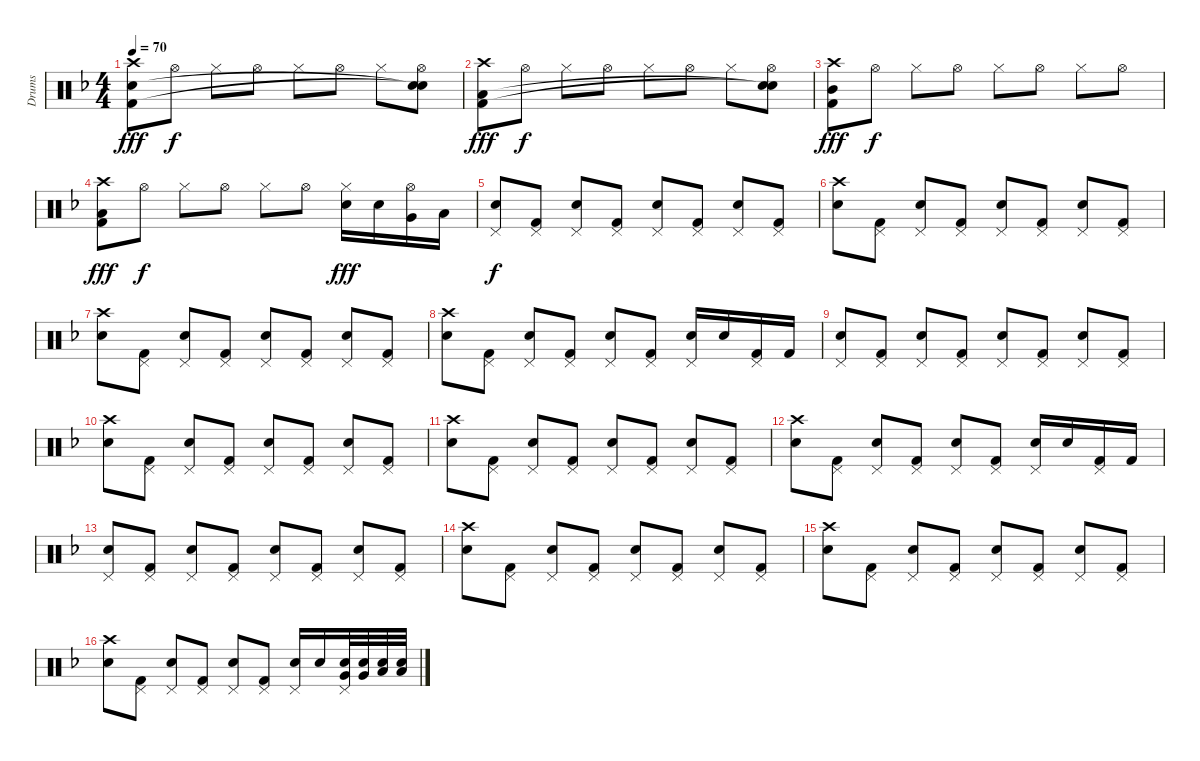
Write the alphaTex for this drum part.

\track ("Drums" "Drums") {instrument percussion}
\staff {score}
\articulation defaults
\ts (4 4)
\tempo 70
\clef neutral
\ks dminor
("Crash high (hit)" "Snare (hit) 2" "Kick (hit) 2").8{dy fff} "Hi-Hat (open)".8{dy f} "Hi-Hat (closed)".8 "Hi-Hat (open)".8 "Hi-Hat (closed)".8 "Hi-Hat (open)".8 "Hi-Hat (closed)".8 ("Hi-Hat (open)" "Snare (hit)"{t} "Snare (hit)"{t}).8 |
("Crash high (hit)" "Low Floor Tom (hit)" "Kick (hit) 2").8{dy fff} "Hi-Hat (open)".8{dy f} "Hi-Hat (closed)".8 "Hi-Hat (open)".8 "Hi-Hat (closed)".8 "Hi-Hat (open)".8 "Hi-Hat (closed)".8 ("Hi-Hat (open)" "Snare (hit)"{t} "Snare (hit)"{t}).8 |
("Crash high (hit)" "Mid Tom (hit)" "Kick (hit) 2").8{dy fff} "Hi-Hat (open)".8{dy f} "Hi-Hat (closed)".8 "Hi-Hat (open)".8 "Hi-Hat (closed)".8 "Hi-Hat (open)".8 "Hi-Hat (closed)".8 "Hi-Hat (open)".8 |
("Crash high (hit)" "Low Tom (hit)" "Kick (hit) 2").8{dy fff} "Hi-Hat (open)".8{dy f} "Hi-Hat (closed)".8 "Hi-Hat (open)".8 "Hi-Hat (closed)".8 "Hi-Hat (open)".8 ("Hi-Hat (closed)" "Snare (hit) 2").16{dy fff} "Snare (hit) 2".16 ("Hi-Hat (open)" "Very Low Tom (hit)").16 "Low Floor Tom (hit)".16 |
("Pedal Hi-Hat (hit)" "Snare (hit) 2").8{dy f} ("Pedal Hi-Hat (hit)" "Kick (hit) 2").8 ("Pedal Hi-Hat (hit)" "Snare (hit) 2").8 ("Pedal Hi-Hat (hit)" "Kick (hit) 2").8 ("Pedal Hi-Hat (hit)" "Snare (hit) 2").8 ("Pedal Hi-Hat (hit)" "Kick (hit) 2").8 ("Pedal Hi-Hat (hit)" "Snare (hit) 2").8 ("Pedal Hi-Hat (hit)" "Kick (hit) 2").8 |
("Crash high (hit)" "Snare (hit) 2").8 ("Pedal Hi-Hat (hit)" "Kick (hit) 2").8 ("Pedal Hi-Hat (hit)" "Snare (hit) 2").8 ("Pedal Hi-Hat (hit)" "Kick (hit) 2").8 ("Pedal Hi-Hat (hit)" "Snare (hit) 2").8 ("Pedal Hi-Hat (hit)" "Kick (hit) 2").8 ("Pedal Hi-Hat (hit)" "Snare (hit) 2").8 ("Pedal Hi-Hat (hit)" "Kick (hit) 2").8 |
("Crash high (hit)" "Snare (hit) 2").8 ("Pedal Hi-Hat (hit)" "Kick (hit) 2").8 ("Pedal Hi-Hat (hit)" "Snare (hit) 2").8 ("Pedal Hi-Hat (hit)" "Kick (hit) 2").8 ("Pedal Hi-Hat (hit)" "Snare (hit) 2").8 ("Pedal Hi-Hat (hit)" "Kick (hit) 2").8 ("Pedal Hi-Hat (hit)" "Snare (hit) 2").8 ("Pedal Hi-Hat (hit)" "Kick (hit) 2").8 |
("Crash high (hit)" "Snare (hit) 2").8 ("Pedal Hi-Hat (hit)" "Kick (hit) 2").8 ("Pedal Hi-Hat (hit)" "Snare (hit) 2").8 ("Pedal Hi-Hat (hit)" "Kick (hit) 2").8 ("Pedal Hi-Hat (hit)" "Snare (hit) 2").8 ("Pedal Hi-Hat (hit)" "Kick (hit) 2").8 ("Pedal Hi-Hat (hit)" "Snare (hit) 2").16 "Snare (hit) 2".16 ("Pedal Hi-Hat (hit)" "Kick (hit) 2").16 "Kick (hit) 2".16 |
("Pedal Hi-Hat (hit)" "Snare (hit) 2").8 ("Pedal Hi-Hat (hit)" "Kick (hit) 2").8 ("Pedal Hi-Hat (hit)" "Snare (hit) 2").8 ("Pedal Hi-Hat (hit)" "Kick (hit) 2").8 ("Pedal Hi-Hat (hit)" "Snare (hit) 2").8 ("Pedal Hi-Hat (hit)" "Kick (hit) 2").8 ("Pedal Hi-Hat (hit)" "Snare (hit) 2").8 ("Pedal Hi-Hat (hit)" "Kick (hit) 2").8 |
("Crash high (hit)" "Snare (hit) 2").8 ("Pedal Hi-Hat (hit)" "Kick (hit) 2").8 ("Pedal Hi-Hat (hit)" "Snare (hit) 2").8 ("Pedal Hi-Hat (hit)" "Kick (hit) 2").8 ("Pedal Hi-Hat (hit)" "Snare (hit) 2").8 ("Pedal Hi-Hat (hit)" "Kick (hit) 2").8 ("Pedal Hi-Hat (hit)" "Snare (hit) 2").8 ("Pedal Hi-Hat (hit)" "Kick (hit) 2").8 |
("Crash high (hit)" "Snare (hit) 2").8 ("Pedal Hi-Hat (hit)" "Kick (hit) 2").8 ("Pedal Hi-Hat (hit)" "Snare (hit) 2").8 ("Pedal Hi-Hat (hit)" "Kick (hit) 2").8 ("Pedal Hi-Hat (hit)" "Snare (hit) 2").8 ("Pedal Hi-Hat (hit)" "Kick (hit) 2").8 ("Pedal Hi-Hat (hit)" "Snare (hit) 2").8 ("Pedal Hi-Hat (hit)" "Kick (hit) 2").8 |
("Crash high (hit)" "Snare (hit) 2").8 ("Pedal Hi-Hat (hit)" "Kick (hit) 2").8 ("Pedal Hi-Hat (hit)" "Snare (hit) 2").8 ("Pedal Hi-Hat (hit)" "Kick (hit) 2").8 ("Pedal Hi-Hat (hit)" "Snare (hit) 2").8 ("Pedal Hi-Hat (hit)" "Kick (hit) 2").8 ("Pedal Hi-Hat (hit)" "Snare (hit) 2").16 "Snare (hit) 2".16 ("Pedal Hi-Hat (hit)" "Kick (hit) 2").16 "Kick (hit) 2".16 |
("Pedal Hi-Hat (hit)" "Snare (hit) 2").8 ("Pedal Hi-Hat (hit)" "Kick (hit) 2").8 ("Pedal Hi-Hat (hit)" "Snare (hit) 2").8 ("Pedal Hi-Hat (hit)" "Kick (hit) 2").8 ("Pedal Hi-Hat (hit)" "Snare (hit) 2").8 ("Pedal Hi-Hat (hit)" "Kick (hit) 2").8 ("Pedal Hi-Hat (hit)" "Snare (hit) 2").8 ("Pedal Hi-Hat (hit)" "Kick (hit) 2").8 |
("Crash high (hit)" "Snare (hit) 2").8 ("Pedal Hi-Hat (hit)" "Kick (hit) 2").8 ("Pedal Hi-Hat (hit)" "Snare (hit) 2").8 ("Pedal Hi-Hat (hit)" "Kick (hit) 2").8 ("Pedal Hi-Hat (hit)" "Snare (hit) 2").8 ("Pedal Hi-Hat (hit)" "Kick (hit) 2").8 ("Pedal Hi-Hat (hit)" "Snare (hit) 2").8 ("Pedal Hi-Hat (hit)" "Kick (hit) 2").8 |
("Crash high (hit)" "Snare (hit) 2").8 ("Pedal Hi-Hat (hit)" "Kick (hit) 2").8 ("Pedal Hi-Hat (hit)" "Snare (hit) 2").8 ("Pedal Hi-Hat (hit)" "Kick (hit) 2").8 ("Pedal Hi-Hat (hit)" "Snare (hit) 2").8 ("Pedal Hi-Hat (hit)" "Kick (hit) 2").8 ("Pedal Hi-Hat (hit)" "Snare (hit) 2").8 ("Pedal Hi-Hat (hit)" "Kick (hit) 2").8 |
("Crash high (hit)" "Snare (hit) 2").8 ("Pedal Hi-Hat (hit)" "Kick (hit) 2").8 ("Pedal Hi-Hat (hit)" "Snare (hit) 2").8 ("Pedal Hi-Hat (hit)" "Kick (hit) 2").8 ("Pedal Hi-Hat (hit)" "Snare (hit) 2").8 ("Pedal Hi-Hat (hit)" "Kick (hit) 2").8 ("Pedal Hi-Hat (hit)" "Snare (hit) 2").16 "Snare (hit) 2".16 ("Pedal Hi-Hat (hit)" "Snare (hit) 2" "Very Low Tom (hit)").32 ("Snare (hit) 2" "Very Low Tom (hit)").32 ("Snare (hit) 2" "Low Floor Tom (hit)").32 ("Snare (hit) 2" "Low Floor Tom (hit)").32
